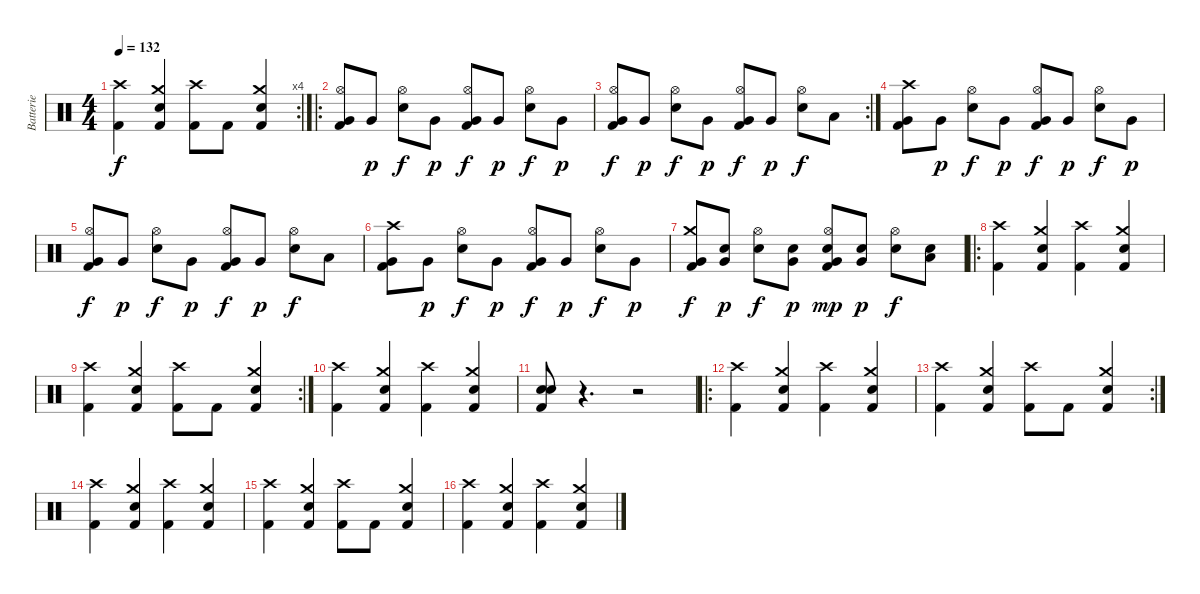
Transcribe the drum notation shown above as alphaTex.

\track ("Batterie" "Batterie") {instrument percussion}
\staff {score}
\articulation defaults
\rc 4
\ts (4 4)
\tempo 132
\clef neutral
\ks c
("Crash high (hit)" "Kick (hit) 2").4{dy f} ("Crash medium (hit)" "Electric Snare (hit)" "Kick (hit) 2").4 ("Crash high (hit)" "Kick (hit) 2").8 "Kick (hit) 2".8 ("Crash medium (hit)" "Electric Snare (hit)" "Kick (hit) 2").4 |
\ro
("Hi-Hat (open)" "Very Low Tom (hit)" "Kick (hit) 2").8 "Very Low Tom (hit)".8{dy p} ("Hi-Hat (open)" "Electric Snare (hit)").8{dy f} "Very Low Tom (hit)".8{dy p} ("Hi-Hat (open)" "Very Low Tom (hit)" "Kick (hit) 2").8{dy f} "Very Low Tom (hit)".8{dy p} ("Hi-Hat (open)" "Electric Snare (hit)").8{dy f} "Very Low Tom (hit)".8{dy p} |
\rc 2
("Hi-Hat (open)" "Very Low Tom (hit)" "Kick (hit) 2").8{dy f} "Very Low Tom (hit)".8{dy p} ("Hi-Hat (open)" "Electric Snare (hit)").8{dy f} "Very Low Tom (hit)".8{dy p} ("Hi-Hat (open)" "Very Low Tom (hit)" "Kick (hit) 2").8{dy f} "Very Low Tom (hit)".8{dy p} ("Hi-Hat (open)" "Electric Snare (hit)").8{dy f} "Low Tom (hit)".8 |
("Crash high (hit)" "Very Low Tom (hit)" "Kick (hit) 2").8 "Very Low Tom (hit)".8{dy p} ("Hi-Hat (open)" "Electric Snare (hit)").8{dy f} "Very Low Tom (hit)".8{dy p} ("Hi-Hat (open)" "Very Low Tom (hit)" "Kick (hit) 2").8{dy f} "Very Low Tom (hit)".8{dy p} ("Hi-Hat (open)" "Electric Snare (hit)").8{dy f} "Very Low Tom (hit)".8{dy p} |
("Hi-Hat (open)" "Very Low Tom (hit)" "Kick (hit) 2").8{dy f} "Very Low Tom (hit)".8{dy p} ("Hi-Hat (open)" "Electric Snare (hit)").8{dy f} "Very Low Tom (hit)".8{dy p} ("Hi-Hat (open)" "Very Low Tom (hit)" "Kick (hit) 2").8{dy f} "Very Low Tom (hit)".8{dy p} ("Hi-Hat (open)" "Electric Snare (hit)").8{dy f} "Low Tom (hit)".8 |
("Crash high (hit)" "Very Low Tom (hit)" "Kick (hit) 2").8 "Very Low Tom (hit)".8{dy p} ("Hi-Hat (open)" "Electric Snare (hit)").8{dy f} "Very Low Tom (hit)".8{dy p} ("Hi-Hat (open)" "Very Low Tom (hit)" "Kick (hit) 2").8{dy f} "Very Low Tom (hit)".8{dy p} ("Hi-Hat (open)" "Electric Snare (hit)").8{dy f} "Very Low Tom (hit)".8{dy p} |
("Crash medium (hit)" "Very Low Tom (hit)" "Kick (hit) 2").8{dy f} ("Electric Snare (hit)" "Very Low Tom (hit)").8{dy p} ("Hi-Hat (open)" "Electric Snare (hit)").8{dy f} ("Electric Snare (hit)" "Very Low Tom (hit)").8{dy p} ("Hi-Hat (open)" "Electric Snare (hit)" "Very Low Tom (hit)" "Kick (hit) 2").8{dy mp} ("Electric Snare (hit)" "Very Low Tom (hit)").8{dy p} ("Hi-Hat (open)" "Electric Snare (hit)").8{dy f} ("Electric Snare (hit)" "Low Tom (hit)").8 |
\ro
("Crash high (hit)" "Kick (hit) 2").4 ("Crash medium (hit)" "Electric Snare (hit)" "Kick (hit) 2").4 ("Crash high (hit)" "Kick (hit) 2").4 ("Crash medium (hit)" "Electric Snare (hit)" "Kick (hit) 2").4 |
\rc 2
("Crash high (hit)" "Kick (hit) 2").4 ("Crash medium (hit)" "Electric Snare (hit)" "Kick (hit) 2").4 ("Crash high (hit)" "Kick (hit) 2").8 "Kick (hit) 2".8 ("Crash medium (hit)" "Electric Snare (hit)" "Kick (hit) 2").4 |
("Crash high (hit)" "Kick (hit) 2").4 ("Crash medium (hit)" "Electric Snare (hit)" "Kick (hit) 2").4 ("Crash high (hit)" "Kick (hit) 2").4 ("Crash medium (hit)" "Electric Snare (hit)" "Kick (hit) 2").4 |
("Electric Snare (hit)" "Electric Snare (hit)" "Kick (hit) 2").8 r.4{d} r.2 |
\ro
("Crash high (hit)" "Kick (hit) 2").4 ("Crash medium (hit)" "Electric Snare (hit)" "Kick (hit) 2").4 ("Crash high (hit)" "Kick (hit) 2").4 ("Crash medium (hit)" "Electric Snare (hit)" "Kick (hit) 2").4 |
\rc 2
("Crash high (hit)" "Kick (hit) 2").4 ("Crash medium (hit)" "Electric Snare (hit)" "Kick (hit) 2").4 ("Crash high (hit)" "Kick (hit) 2").8 "Kick (hit) 2".8 ("Crash medium (hit)" "Electric Snare (hit)" "Kick (hit) 2").4 |
("Crash high (hit)" "Kick (hit) 2").4 ("Crash medium (hit)" "Electric Snare (hit)" "Kick (hit) 2").4 ("Crash high (hit)" "Kick (hit) 2").4 ("Crash medium (hit)" "Electric Snare (hit)" "Kick (hit) 2").4 |
("Crash high (hit)" "Kick (hit) 2").4 ("Crash medium (hit)" "Electric Snare (hit)" "Kick (hit) 2").4 ("Crash high (hit)" "Kick (hit) 2").8 "Kick (hit) 2".8 ("Crash medium (hit)" "Electric Snare (hit)" "Kick (hit) 2").4 |
("Crash high (hit)" "Kick (hit) 2").4 ("Crash medium (hit)" "Electric Snare (hit)" "Kick (hit) 2").4 ("Crash high (hit)" "Kick (hit) 2").4 ("Crash medium (hit)" "Electric Snare (hit)" "Kick (hit) 2").4
